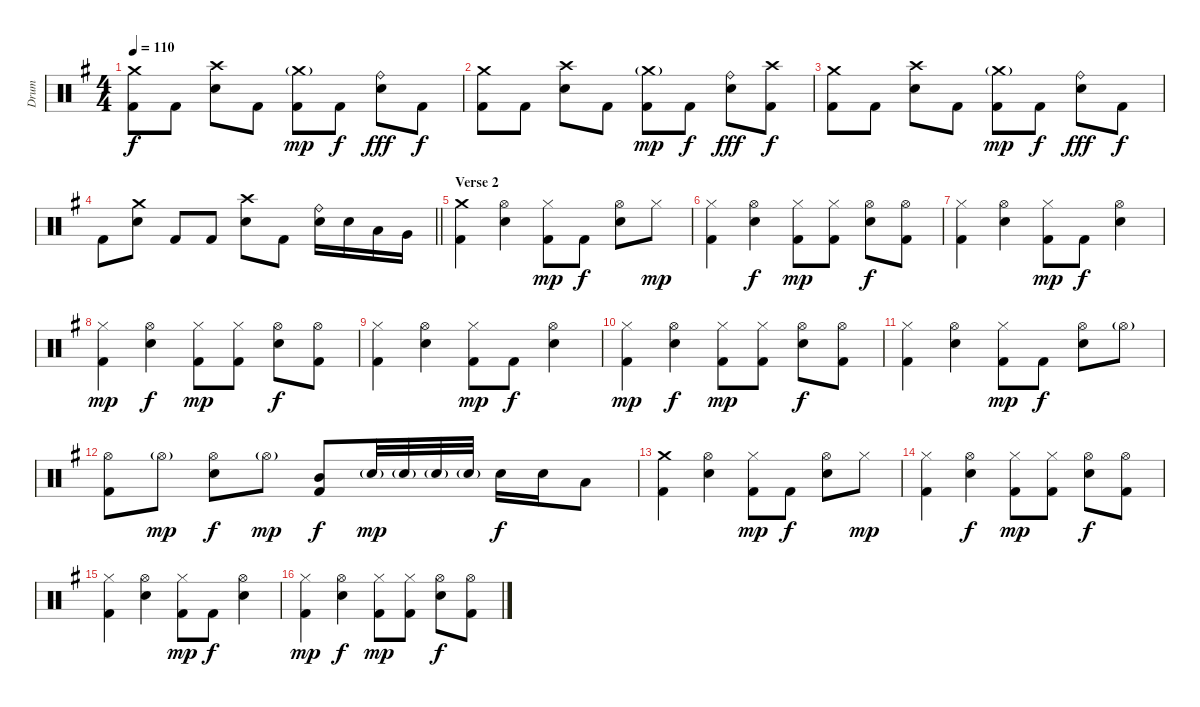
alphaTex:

\track ("Drum" "Drum") {instrument percussion}
\staff {score}
\articulation defaults
\ts (4 4)
\tempo 110
\clef neutral
\ks g
("Crash medium (hit)" "Kick (hit) 2").8{dy f} "Kick (hit) 2".8 ("Crash high (hit)" "Electric Snare (hit)").8 "Kick (hit) 2".8 ("Crash medium (hit)"{g} "Kick (hit) 2").8{dy mp} "Kick (hit) 2".8{dy f} ("Ride (bell)" "Electric Snare (hit)").8{dy fff} "Kick (hit) 2".8{dy f} |
("Crash medium (hit)" "Kick (hit) 2").8 "Kick (hit) 2".8 ("Crash high (hit)" "Electric Snare (hit)").8 "Kick (hit) 2".8 ("Crash medium (hit)"{g} "Kick (hit) 2").8{dy mp} "Kick (hit) 2".8{dy f} ("Ride (bell)" "Electric Snare (hit)").8{dy fff} ("Crash high (hit)" "Kick (hit) 2").8{dy f} |
("Crash medium (hit)" "Kick (hit) 2").8 "Kick (hit) 2".8 ("Crash high (hit)" "Electric Snare (hit)").8 "Kick (hit) 2".8 ("Crash medium (hit)"{g} "Kick (hit) 2").8{dy mp} "Kick (hit) 2".8{dy f} ("Ride (bell)" "Electric Snare (hit)").8{dy fff} "Kick (hit) 2".8{dy f} |
\barLineRight lightlight "Kick (hit) 2".8
("Crash medium (hit)" "Electric Snare (hit)").8 "Kick (hit) 2".8 "Kick (hit) 2".8 ("Crash high (hit)" "Electric Snare (hit)").8 "Kick (hit) 2".8 ("Ride (bell)" "Electric Snare (hit)").16 "Electric Snare (hit)".16 "Low Tom (hit)".16 "Very Low Tom (hit)".16 |
\section ("" "Verse 2")
("Crash medium (hit)" "Kick (hit) 2").4 ("Hi-Hat (open)" "Electric Snare (hit)").4 ("Hi-Hat (closed)" "Kick (hit) 2").8{dy mp} "Kick (hit) 2".8{dy f} ("Hi-Hat (open)" "Electric Snare (hit)").8 "Hi-Hat (closed)".8{dy mp} |
("Hi-Hat (closed)" "Kick (hit) 2").4 ("Hi-Hat (open)" "Electric Snare (hit)").4{dy f} ("Hi-Hat (closed)" "Kick (hit) 2").8{dy mp} ("Hi-Hat (closed)" "Kick (hit) 2").8 ("Hi-Hat (open)" "Electric Snare (hit)").8{dy f} ("Hi-Hat (open)" "Kick (hit) 2").8 |
("Hi-Hat (closed)" "Kick (hit) 2").4 ("Hi-Hat (open)" "Electric Snare (hit)").4 ("Hi-Hat (closed)" "Kick (hit) 2").8{dy mp} "Kick (hit) 2".8{dy f} ("Hi-Hat (open)" "Electric Snare (hit)").4 |
("Hi-Hat (closed)" "Kick (hit) 2").4{dy mp} ("Hi-Hat (open)" "Electric Snare (hit)").4{dy f} ("Hi-Hat (closed)" "Kick (hit) 2").8{dy mp} ("Hi-Hat (closed)" "Kick (hit) 2").8 ("Hi-Hat (open)" "Electric Snare (hit)").8{dy f} ("Hi-Hat (open)" "Kick (hit) 2").8 |
("Hi-Hat (closed)" "Kick (hit) 2").4 ("Hi-Hat (open)" "Electric Snare (hit)").4 ("Hi-Hat (closed)" "Kick (hit) 2").8{dy mp} "Kick (hit) 2".8{dy f} ("Hi-Hat (open)" "Electric Snare (hit)").4 |
("Hi-Hat (closed)" "Kick (hit) 2").4{dy mp} ("Hi-Hat (open)" "Electric Snare (hit)").4{dy f} ("Hi-Hat (closed)" "Kick (hit) 2").8{dy mp} ("Hi-Hat (closed)" "Kick (hit) 2").8 ("Hi-Hat (open)" "Electric Snare (hit)").8{dy f} ("Hi-Hat (open)" "Kick (hit) 2").8 |
("Hi-Hat (closed)" "Kick (hit) 2").4 ("Hi-Hat (open)" "Electric Snare (hit)").4 ("Hi-Hat (closed)" "Kick (hit) 2").8{dy mp} "Kick (hit) 2".8{dy f} ("Hi-Hat (open)" "Electric Snare (hit)").8 "Hi-Hat (open)"{g}.8 |
("Hi-Hat (open)" "Kick (hit) 2").8 "Hi-Hat (open)"{g}.8{dy mp} ("Hi-Hat (open)" "Electric Snare (hit)").8{dy f} "Hi-Hat (open)"{g}.8{dy mp} ("Mid Tom (hit)" "Kick (hit) 2").8{dy f} "Electric Snare (hit)"{g}.32{dy mp} "Electric Snare (hit)"{g}.32 "Electric Snare (hit)"{g}.32 "Electric Snare (hit)"{g}.32 "Electric Snare (hit)".16{dy f} "Electric Snare (hit)".16 "Low Tom (hit)".8 |
("Crash medium (hit)" "Kick (hit) 2").4 ("Hi-Hat (open)" "Electric Snare (hit)").4 ("Hi-Hat (closed)" "Kick (hit) 2").8{dy mp} "Kick (hit) 2".8{dy f} ("Hi-Hat (open)" "Electric Snare (hit)").8 "Hi-Hat (closed)".8{dy mp} |
("Hi-Hat (closed)" "Kick (hit) 2").4 ("Hi-Hat (open)" "Electric Snare (hit)").4{dy f} ("Hi-Hat (closed)" "Kick (hit) 2").8{dy mp} ("Hi-Hat (closed)" "Kick (hit) 2").8 ("Hi-Hat (open)" "Electric Snare (hit)").8{dy f} ("Hi-Hat (open)" "Kick (hit) 2").8 |
("Hi-Hat (closed)" "Kick (hit) 2").4 ("Hi-Hat (open)" "Electric Snare (hit)").4 ("Hi-Hat (closed)" "Kick (hit) 2").8{dy mp} "Kick (hit) 2".8{dy f} ("Hi-Hat (open)" "Electric Snare (hit)").4 |
("Hi-Hat (closed)" "Kick (hit) 2").4{dy mp} ("Hi-Hat (open)" "Electric Snare (hit)").4{dy f} ("Hi-Hat (closed)" "Kick (hit) 2").8{dy mp} ("Hi-Hat (closed)" "Kick (hit) 2").8 ("Hi-Hat (open)" "Electric Snare (hit)").8{dy f} ("Hi-Hat (open)" "Kick (hit) 2").8
